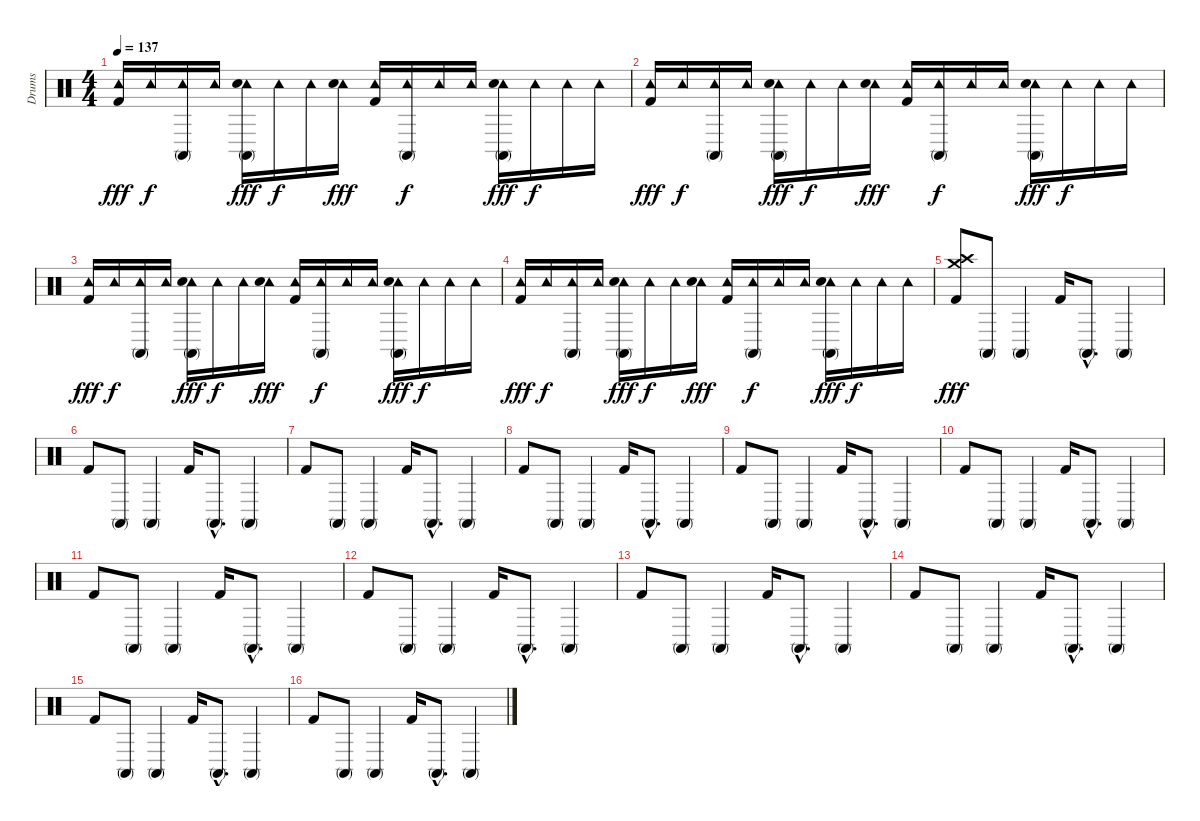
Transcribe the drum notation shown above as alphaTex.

\track ("Drums" "Drums") {instrument percussion}
\staff {score}
\articulation defaults
\ts (4 4)
\tempo 137
\clef neutral
\ks c
("Tambourine (hit)" "Kick (hit) 2").16{dy fff} "Tambourine (hit)".16{dy f} ("Tambourine (hit)" "Conga high (mute)").16 "Tambourine (hit)".16 ("Tambourine (hit)" "Conga high (mute)" "Electric Snare (hit)").16{dy fff} "Tambourine (hit)".16{dy f} "Tambourine (hit)".16 ("Tambourine (hit)" "Electric Snare (hit)").16{dy fff} ("Tambourine (hit)" "Kick (hit) 2").16 ("Tambourine (hit)" "Conga high (mute)").16{dy f} "Tambourine (hit)".16 "Tambourine (hit)".16 ("Tambourine (hit)" "Conga high (mute)" "Electric Snare (hit)").16{dy fff} "Tambourine (hit)".16{dy f} "Tambourine (hit)".16 "Tambourine (hit)".16 |
("Tambourine (hit)" "Kick (hit) 2").16{dy fff} "Tambourine (hit)".16{dy f} ("Tambourine (hit)" "Conga high (mute)").16 "Tambourine (hit)".16 ("Tambourine (hit)" "Conga high (mute)" "Electric Snare (hit)").16{dy fff} "Tambourine (hit)".16{dy f} "Tambourine (hit)".16 ("Tambourine (hit)" "Electric Snare (hit)").16{dy fff} ("Tambourine (hit)" "Kick (hit) 2").16 ("Tambourine (hit)" "Conga high (mute)").16{dy f} "Tambourine (hit)".16 "Tambourine (hit)".16 ("Tambourine (hit)" "Conga high (mute)" "Electric Snare (hit)").16{dy fff} "Tambourine (hit)".16{dy f} "Tambourine (hit)".16 "Tambourine (hit)".16 |
("Tambourine (hit)" "Kick (hit) 2").16{dy fff} "Tambourine (hit)".16{dy f} ("Tambourine (hit)" "Conga high (mute)").16 "Tambourine (hit)".16 ("Tambourine (hit)" "Conga high (mute)" "Electric Snare (hit)").16{dy fff} "Tambourine (hit)".16{dy f} "Tambourine (hit)".16 ("Tambourine (hit)" "Electric Snare (hit)").16{dy fff} ("Tambourine (hit)" "Kick (hit) 2").16 ("Tambourine (hit)" "Conga high (mute)").16{dy f} "Tambourine (hit)".16 "Tambourine (hit)".16 ("Tambourine (hit)" "Conga high (mute)" "Electric Snare (hit)").16{dy fff} "Tambourine (hit)".16{dy f} "Tambourine (hit)".16 "Tambourine (hit)".16 |
("Tambourine (hit)" "Kick (hit) 2").16{dy fff} "Tambourine (hit)".16{dy f} ("Tambourine (hit)" "Conga high (mute)").16 "Tambourine (hit)".16 ("Tambourine (hit)" "Conga high (mute)" "Electric Snare (hit)").16{dy fff} "Tambourine (hit)".16{dy f} "Tambourine (hit)".16 ("Tambourine (hit)" "Electric Snare (hit)").16{dy fff} ("Tambourine (hit)" "Kick (hit) 2").16 ("Tambourine (hit)" "Conga high (mute)").16{dy f} "Tambourine (hit)".16 "Tambourine (hit)".16 ("Tambourine (hit)" "Conga high (mute)" "Electric Snare (hit)").16{dy fff} "Tambourine (hit)".16{dy f} "Tambourine (hit)".16 "Tambourine (hit)".16 |
("Crash high (hit)" "Crash medium (hit)" "Kick (hit) 2").8{dy fff} "Conga high (mute)".8 "Conga high (mute)".4 "Kick (hit) 2".16 "Conga high (mute)"{hac}.8{d} "Conga high (mute)".4 |
"Kick (hit) 2".8 "Conga high (mute)".8 "Conga high (mute)".4 "Kick (hit) 2".16 "Conga high (mute)"{hac}.8{d} "Conga high (mute)".4 |
"Kick (hit) 2".8 "Conga high (mute)".8 "Conga high (mute)".4 "Kick (hit) 2".16 "Conga high (mute)"{hac}.8{d} "Conga high (mute)".4 |
"Kick (hit) 2".8 "Conga high (mute)".8 "Conga high (mute)".4 "Kick (hit) 2".16 "Conga high (mute)"{hac}.8{d} "Conga high (mute)".4 |
"Kick (hit) 2".8 "Conga high (mute)".8 "Conga high (mute)".4 "Kick (hit) 2".16 "Conga high (mute)"{hac}.8{d} "Conga high (mute)".4 |
"Kick (hit) 2".8 "Conga high (mute)".8 "Conga high (mute)".4 "Kick (hit) 2".16 "Conga high (mute)"{hac}.8{d} "Conga high (mute)".4 |
"Kick (hit) 2".8 "Conga high (mute)".8 "Conga high (mute)".4 "Kick (hit) 2".16 "Conga high (mute)"{hac}.8{d} "Conga high (mute)".4 |
"Kick (hit) 2".8 "Conga high (mute)".8 "Conga high (mute)".4 "Kick (hit) 2".16 "Conga high (mute)"{hac}.8{d} "Conga high (mute)".4 |
"Kick (hit) 2".8 "Conga high (mute)".8 "Conga high (mute)".4 "Kick (hit) 2".16 "Conga high (mute)"{hac}.8{d} "Conga high (mute)".4 |
"Kick (hit) 2".8 "Conga high (mute)".8 "Conga high (mute)".4 "Kick (hit) 2".16 "Conga high (mute)"{hac}.8{d} "Conga high (mute)".4 |
"Kick (hit) 2".8 "Conga high (mute)".8 "Conga high (mute)".4 "Kick (hit) 2".16 "Conga high (mute)"{hac}.8{d} "Conga high (mute)".4 |
"Kick (hit) 2".8 "Conga high (mute)".8 "Conga high (mute)".4 "Kick (hit) 2".16 "Conga high (mute)"{hac}.8{d} "Conga high (mute)".4
